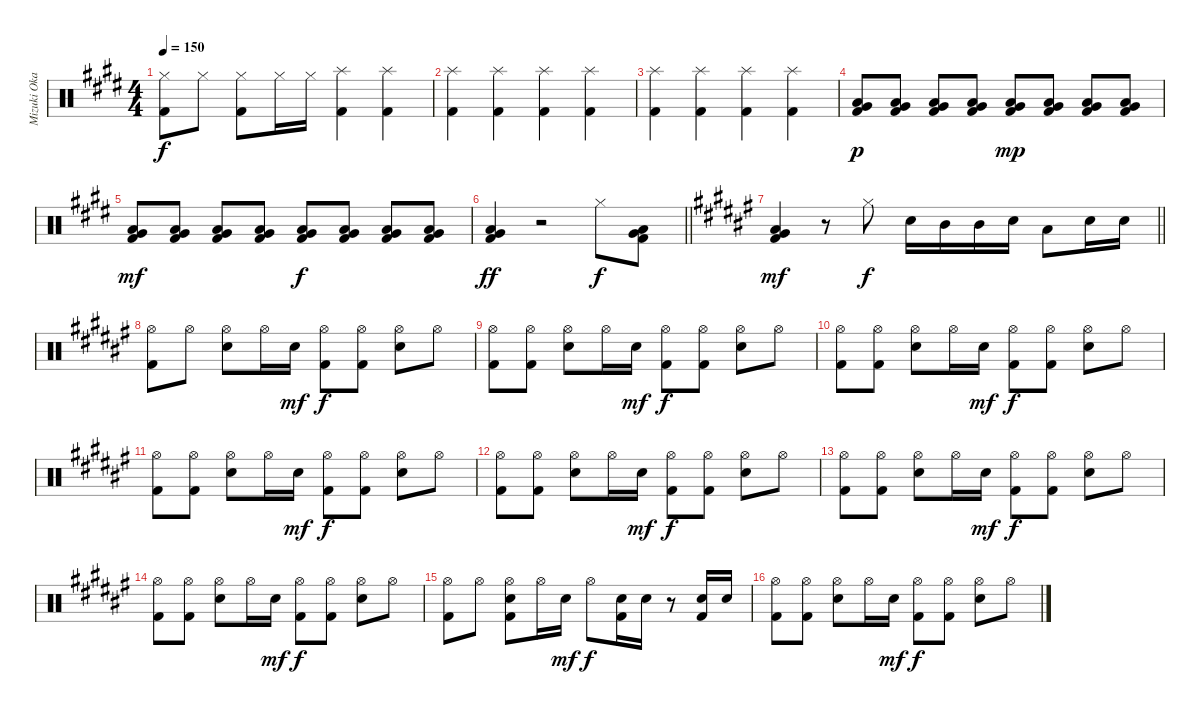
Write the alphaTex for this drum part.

\track ("Mizuki Okajima (Drums)" "Mizuki Oka") {instrument percussion}
\staff {score}
\articulation defaults
\ts (4 4)
\tempo 150
\clef neutral
\ks c#minor
("Hi-Hat (closed)" "Kick (hit) 2").8{dy f} "Hi-Hat (closed)".8 ("Hi-Hat (closed)" "Kick (hit) 2").8 "Hi-Hat (closed)".16 "Hi-Hat (closed)".16 ("Splash (hit)" "Kick (hit) 2").4 ("Splash (hit)" "Kick (hit) 2").4 |
("Splash (hit)" "Kick (hit) 2").4 ("Splash (hit)" "Kick (hit) 2").4 ("Splash (hit)" "Kick (hit) 2").4 ("Splash (hit)" "Kick (hit) 2").4 |
("Splash (hit)" "Kick (hit) 2").4 ("Splash (hit)" "Kick (hit) 2").4 ("Splash (hit)" "Kick (hit) 2").4 ("Splash (hit)" "Kick (hit) 2").4 |
("Low Tom (hit)" "Very Low Tom (hit)" "Kick (hit) 2").8{dy p} ("Low Tom (hit)" "Very Low Tom (hit)" "Kick (hit) 2").8 ("Low Tom (hit)" "Very Low Tom (hit)" "Kick (hit) 2").8 ("Low Tom (hit)" "Very Low Tom (hit)" "Kick (hit) 2").8 ("Low Tom (hit)" "Very Low Tom (hit)" "Kick (hit) 2").8{dy mp} ("Low Tom (hit)" "Very Low Tom (hit)" "Kick (hit) 2").8 ("Low Tom (hit)" "Very Low Tom (hit)" "Kick (hit) 2").8 ("Low Tom (hit)" "Very Low Tom (hit)" "Kick (hit) 2").8 |
("Low Tom (hit)" "Very Low Tom (hit)" "Kick (hit) 2").8{dy mf} ("Low Tom (hit)" "Very Low Tom (hit)" "Kick (hit) 2").8 ("Low Tom (hit)" "Very Low Tom (hit)" "Kick (hit) 2").8 ("Low Tom (hit)" "Very Low Tom (hit)" "Kick (hit) 2").8 ("Low Tom (hit)" "Very Low Tom (hit)" "Kick (hit) 2").8{dy f} ("Low Tom (hit)" "Very Low Tom (hit)" "Kick (hit) 2").8 ("Low Tom (hit)" "Very Low Tom (hit)" "Kick (hit) 2").8 ("Low Tom (hit)" "Very Low Tom (hit)" "Kick (hit) 2").8 |
\barLineRight lightlight
("Low Tom (hit)" "Very Low Tom (hit)" "Kick (hit) 2").4{dy ff} r.2 "Hi-Hat (closed)".8{dy f} ("Low Tom (hit)" "Very Low Tom (hit)" "Kick (hit) 2").8 |
\barLineRight lightlight
\ks d#minor
("Low Tom (hit)" "Very Low Tom (hit)" "Kick (hit) 2").4{dy mf} r.8 "Hi-Hat (closed)".8{dy f} "Snare (hit) 2".16 "Mid Tom (hit)".16 "Mid Tom (hit)".16 "Snare (hit) 2".16 "Low Tom (hit)".8 "Snare (hit) 2".16 "Snare (hit) 2".16 |
("Hi-Hat (open)" "Kick (hit) 2").8 "Hi-Hat (open)".8 ("Hi-Hat (open)" "Snare (hit) 2").8 "Hi-Hat (open)".16 "Snare (hit) 2".16{dy mf} ("Hi-Hat (open)" "Kick (hit) 2").8{dy f} ("Hi-Hat (open)" "Kick (hit) 2").8 ("Hi-Hat (open)" "Snare (hit) 2").8 "Hi-Hat (open)".8 |
("Hi-Hat (open)" "Kick (hit) 2").8 ("Hi-Hat (open)" "Kick (hit) 2").8 ("Hi-Hat (open)" "Snare (hit) 2").8 "Hi-Hat (open)".16 "Snare (hit) 2".16{dy mf} ("Hi-Hat (open)" "Kick (hit) 2").8{dy f} ("Hi-Hat (open)" "Kick (hit) 2").8 ("Hi-Hat (open)" "Snare (hit) 2").8 "Hi-Hat (open)".8 |
("Hi-Hat (open)" "Kick (hit) 2").8 ("Hi-Hat (open)" "Kick (hit) 2").8 ("Hi-Hat (open)" "Snare (hit) 2").8 "Hi-Hat (open)".16 "Snare (hit) 2".16{dy mf} ("Hi-Hat (open)" "Kick (hit) 2").8{dy f} ("Hi-Hat (open)" "Kick (hit) 2").8 ("Hi-Hat (open)" "Snare (hit) 2").8 "Hi-Hat (open)".8 |
("Hi-Hat (open)" "Kick (hit) 2").8 ("Hi-Hat (open)" "Kick (hit) 2").8 ("Hi-Hat (open)" "Snare (hit) 2").8 "Hi-Hat (open)".16 "Snare (hit) 2".16{dy mf} ("Hi-Hat (open)" "Kick (hit) 2").8{dy f} ("Hi-Hat (open)" "Kick (hit) 2").8 ("Hi-Hat (open)" "Snare (hit) 2").8 "Hi-Hat (open)".8 |
("Hi-Hat (open)" "Kick (hit) 2").8 ("Hi-Hat (open)" "Kick (hit) 2").8 ("Hi-Hat (open)" "Snare (hit) 2").8 "Hi-Hat (open)".16 "Snare (hit) 2".16{dy mf} ("Hi-Hat (open)" "Kick (hit) 2").8{dy f} ("Hi-Hat (open)" "Kick (hit) 2").8 ("Hi-Hat (open)" "Snare (hit) 2").8 "Hi-Hat (open)".8 |
("Hi-Hat (open)" "Kick (hit) 2").8 ("Hi-Hat (open)" "Kick (hit) 2").8 ("Hi-Hat (open)" "Snare (hit) 2").8 "Hi-Hat (open)".16 "Snare (hit) 2".16{dy mf} ("Hi-Hat (open)" "Kick (hit) 2").8{dy f} ("Hi-Hat (open)" "Kick (hit) 2").8 ("Hi-Hat (open)" "Snare (hit) 2").8 "Hi-Hat (open)".8 |
("Hi-Hat (open)" "Kick (hit) 2").8 ("Hi-Hat (open)" "Kick (hit) 2").8 ("Hi-Hat (open)" "Snare (hit) 2").8 "Hi-Hat (open)".16 "Snare (hit) 2".16{dy mf} ("Hi-Hat (open)" "Kick (hit) 2").8{dy f} ("Hi-Hat (open)" "Kick (hit) 2").8 ("Hi-Hat (open)" "Snare (hit) 2").8 "Hi-Hat (open)".8 |
("Hi-Hat (open)" "Kick (hit) 2").8 "Hi-Hat (open)".8 ("Hi-Hat (open)" "Snare (hit) 2" "Kick (hit) 2").8 "Hi-Hat (open)".16 "Snare (hit) 2".16{dy mf} "Hi-Hat (open)".8{dy f} ("Snare (hit) 2" "Kick (hit) 2").16 "Snare (hit) 2".16 r.8 ("Snare (hit) 2" "Kick (hit) 2").16 "Snare (hit) 2".16 |
("Hi-Hat (open)" "Kick (hit) 2").8 ("Hi-Hat (open)" "Kick (hit) 2").8 ("Hi-Hat (open)" "Snare (hit) 2").8 "Hi-Hat (open)".16 "Snare (hit) 2".16{dy mf} ("Hi-Hat (open)" "Kick (hit) 2").8{dy f} ("Hi-Hat (open)" "Kick (hit) 2").8 ("Hi-Hat (open)" "Snare (hit) 2").8 "Hi-Hat (open)".8
